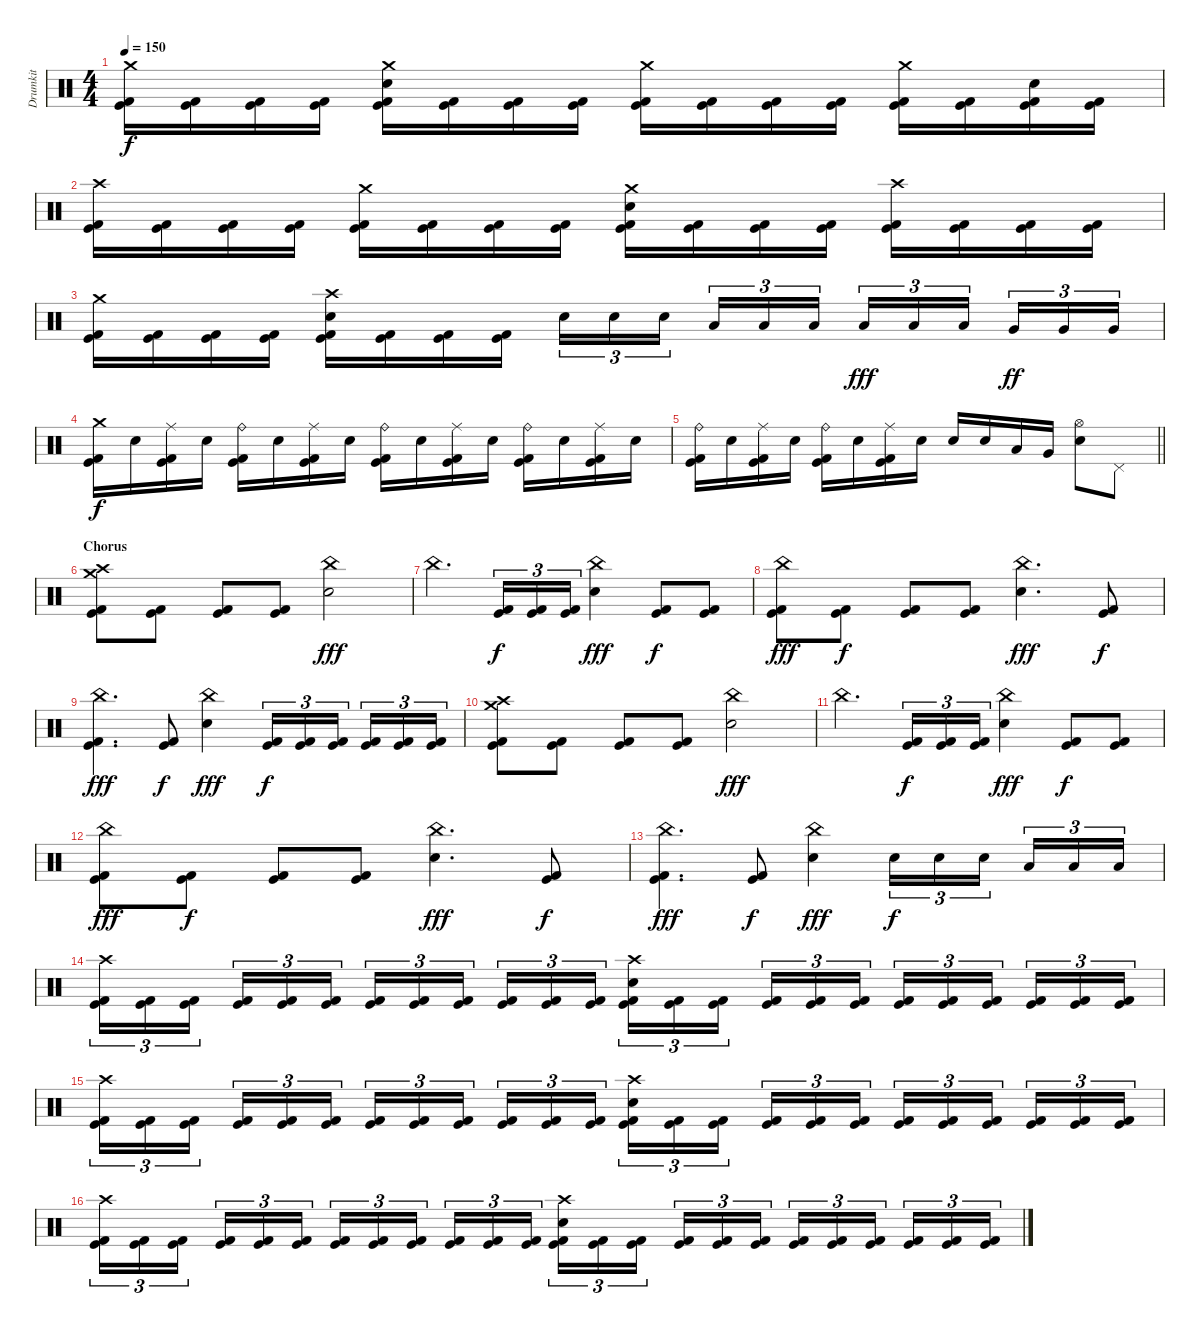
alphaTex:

\track ("Drumkit" "Drumkit") {instrument percussion}
\staff {score}
\articulation defaults
\ts (4 4)
\tempo 150
\clef neutral
\ks c
("Crash medium (hit)" "Kick (hit)" "Kick (hit) 2").16{dy f} ("Kick (hit)" "Kick (hit) 2").16 ("Kick (hit)" "Kick (hit) 2").16 ("Kick (hit)" "Kick (hit) 2").16 ("Crash medium (hit)" "Electric Snare (hit)" "Kick (hit)" "Kick (hit) 2").16 ("Kick (hit)" "Kick (hit) 2").16 ("Kick (hit)" "Kick (hit) 2").16 ("Kick (hit)" "Kick (hit) 2").16 ("Crash medium (hit)" "Kick (hit)" "Kick (hit) 2").16 ("Kick (hit)" "Kick (hit) 2").16 ("Kick (hit)" "Kick (hit) 2").16 ("Kick (hit)" "Kick (hit) 2").16 ("Crash medium (hit)" "Kick (hit)" "Kick (hit) 2").16 ("Kick (hit)" "Kick (hit) 2").16 ("Electric Snare (hit)" "Kick (hit)" "Kick (hit) 2").16 ("Kick (hit)" "Kick (hit) 2").16 |
("Crash high (hit)" "Kick (hit)" "Kick (hit) 2").16 ("Kick (hit)" "Kick (hit) 2").16 ("Kick (hit)" "Kick (hit) 2").16 ("Kick (hit)" "Kick (hit) 2").16 ("Crash medium (hit)" "Kick (hit)" "Kick (hit) 2").16 ("Kick (hit)" "Kick (hit) 2").16 ("Kick (hit)" "Kick (hit) 2").16 ("Kick (hit)" "Kick (hit) 2").16 ("Crash medium (hit)" "Electric Snare (hit)" "Kick (hit)" "Kick (hit) 2").16 ("Kick (hit)" "Kick (hit) 2").16 ("Kick (hit)" "Kick (hit) 2").16 ("Kick (hit)" "Kick (hit) 2").16 ("Crash high (hit)" "Kick (hit)" "Kick (hit) 2").16 ("Kick (hit)" "Kick (hit) 2").16 ("Kick (hit)" "Kick (hit) 2").16 ("Kick (hit)" "Kick (hit) 2").16 |
("Crash medium (hit)" "Kick (hit)" "Kick (hit) 2").16 ("Kick (hit)" "Kick (hit) 2").16 ("Kick (hit)" "Kick (hit) 2").16 ("Kick (hit)" "Kick (hit) 2").16 ("Crash high (hit)" "Electric Snare (hit)" "Kick (hit)" "Kick (hit) 2").16 ("Kick (hit)" "Kick (hit) 2").16 ("Kick (hit)" "Kick (hit) 2").16 ("Kick (hit)" "Kick (hit) 2").16 "Electric Snare (hit)".16{tu (3 2)} "Electric Snare (hit)".16{tu (3 2)} "Electric Snare (hit)".16{tu (3 2) beam splitsecondary} "Low Tom (hit)".16{tu (3 2)} "Low Tom (hit)".16{tu (3 2)} "Low Tom (hit)".16{tu (3 2)} "Low Floor Tom (hit)".16{tu (3 2) dy fff} "Low Floor Tom (hit)".16{tu (3 2)} "Low Floor Tom (hit)".16{tu (3 2) beam splitsecondary} "Very Low Tom (hit)".16{tu (3 2) dy ff} "Very Low Tom (hit)".16{tu (3 2)} "Very Low Tom (hit)".16{tu (3 2)} |
("Crash medium (hit)" "Kick (hit)" "Kick (hit) 2").16{dy f} "Electric Snare (hit)".16 ("Ride (middle)" "Kick (hit)" "Kick (hit) 2").16 "Electric Snare (hit)".16 ("Ride (bell)" "Kick (hit)" "Kick (hit) 2").16 "Electric Snare (hit)".16 ("Ride (middle)" "Kick (hit)" "Kick (hit) 2").16 "Electric Snare (hit)".16 ("Ride (bell)" "Kick (hit)" "Kick (hit) 2").16 "Electric Snare (hit)".16 ("Ride (middle)" "Kick (hit)" "Kick (hit) 2").16 "Electric Snare (hit)".16 ("Ride (bell)" "Kick (hit)" "Kick (hit) 2").16 "Electric Snare (hit)".16 ("Ride (middle)" "Kick (hit)" "Kick (hit) 2").16 "Electric Snare (hit)".16 |
\barLineRight lightlight
("Ride (bell)" "Kick (hit)" "Kick (hit) 2").16 "Electric Snare (hit)".16 ("Ride (middle)" "Kick (hit)" "Kick (hit) 2").16 "Electric Snare (hit)".16 ("Ride (bell)" "Kick (hit)" "Kick (hit) 2").16 "Electric Snare (hit)".16 ("Ride (middle)" "Kick (hit)" "Kick (hit) 2").16 "Electric Snare (hit)".16 "Electric Snare (hit)".16 "Electric Snare (hit)".16 "Low Tom (hit)".16 "Very Low Tom (hit)".16 ("Hi-Hat (open)" "Electric Snare (hit)").8 "Pedal Hi-Hat (hit)".8 |
\section ("" "Chorus")
("Crash high (hit)" "Crash medium (hit)" "Kick (hit)" "Kick (hit) 2").8 ("Kick (hit)" "Kick (hit) 2").8 ("Kick (hit)" "Kick (hit) 2").8 ("Kick (hit)" "Kick (hit) 2").8 ("China (hit)" "Electric Snare (hit)").2{dy fff} |
"China (hit)".4{d} ("Kick (hit)" "Kick (hit) 2").16{tu (3 2) dy f} ("Kick (hit)" "Kick (hit) 2").16{tu (3 2)} ("Kick (hit)" "Kick (hit) 2").16{tu (3 2)} ("China (hit)" "Electric Snare (hit)").4{dy fff} ("Kick (hit)" "Kick (hit) 2").8{dy f} ("Kick (hit)" "Kick (hit) 2").8 |
("China (hit)" "Kick (hit)" "Kick (hit) 2").8{dy fff} ("Kick (hit)" "Kick (hit) 2").8{dy f} ("Kick (hit)" "Kick (hit) 2").8 ("Kick (hit)" "Kick (hit) 2").8 ("China (hit)" "Electric Snare (hit)").4{d dy fff} ("Kick (hit)" "Kick (hit) 2").8{dy f} |
("China (hit)" "Kick (hit)" "Kick (hit) 2").4{d dy fff} ("Kick (hit)" "Kick (hit) 2").8{dy f} ("China (hit)" "Electric Snare (hit)").4{dy fff} ("Kick (hit)" "Kick (hit) 2").16{tu (3 2) dy f} ("Kick (hit)" "Kick (hit) 2").16{tu (3 2)} ("Kick (hit)" "Kick (hit) 2").16{tu (3 2) beam splitsecondary} ("Kick (hit)" "Kick (hit) 2").16{tu (3 2)} ("Kick (hit)" "Kick (hit) 2").16{tu (3 2)} ("Kick (hit)" "Kick (hit) 2").16{tu (3 2)} |
("Crash high (hit)" "Crash medium (hit)" "Kick (hit)" "Kick (hit) 2").8 ("Kick (hit)" "Kick (hit) 2").8 ("Kick (hit)" "Kick (hit) 2").8 ("Kick (hit)" "Kick (hit) 2").8 ("China (hit)" "Electric Snare (hit)").2{dy fff} |
"China (hit)".4{d} ("Kick (hit)" "Kick (hit) 2").16{tu (3 2) dy f} ("Kick (hit)" "Kick (hit) 2").16{tu (3 2)} ("Kick (hit)" "Kick (hit) 2").16{tu (3 2)} ("China (hit)" "Electric Snare (hit)").4{dy fff} ("Kick (hit)" "Kick (hit) 2").8{dy f} ("Kick (hit)" "Kick (hit) 2").8 |
("China (hit)" "Kick (hit)" "Kick (hit) 2").8{dy fff} ("Kick (hit)" "Kick (hit) 2").8{dy f} ("Kick (hit)" "Kick (hit) 2").8 ("Kick (hit)" "Kick (hit) 2").8 ("China (hit)" "Electric Snare (hit)").4{d dy fff} ("Kick (hit)" "Kick (hit) 2").8{dy f} |
("China (hit)" "Kick (hit)" "Kick (hit) 2").4{d dy fff} ("Kick (hit)" "Kick (hit) 2").8{dy f} ("China (hit)" "Electric Snare (hit)").4{dy fff} "Electric Snare (hit)".16{tu (3 2) dy f} "Electric Snare (hit)".16{tu (3 2)} "Electric Snare (hit)".16{tu (3 2) beam splitsecondary} "Low Tom (hit)".16{tu (3 2)} "Low Tom (hit)".16{tu (3 2)} "Low Tom (hit)".16{tu (3 2)} |
("Crash high (hit)" "Kick (hit)" "Kick (hit) 2").16{tu (3 2)} ("Kick (hit)" "Kick (hit) 2").16{tu (3 2)} ("Kick (hit)" "Kick (hit) 2").16{tu (3 2) beam splitsecondary} ("Kick (hit)" "Kick (hit) 2").16{tu (3 2)} ("Kick (hit)" "Kick (hit) 2").16{tu (3 2)} ("Kick (hit)" "Kick (hit) 2").16{tu (3 2)} ("Kick (hit)" "Kick (hit) 2").16{tu (3 2)} ("Kick (hit)" "Kick (hit) 2").16{tu (3 2)} ("Kick (hit)" "Kick (hit) 2").16{tu (3 2) beam splitsecondary} ("Kick (hit)" "Kick (hit) 2").16{tu (3 2)} ("Kick (hit)" "Kick (hit) 2").16{tu (3 2)} ("Kick (hit)" "Kick (hit) 2").16{tu (3 2)} ("Crash high (hit)" "Electric Snare (hit)" "Kick (hit)" "Kick (hit) 2").16{tu (3 2)} ("Kick (hit)" "Kick (hit) 2").16{tu (3 2)} ("Kick (hit)" "Kick (hit) 2").16{tu (3 2) beam splitsecondary} ("Kick (hit)" "Kick (hit) 2").16{tu (3 2)} ("Kick (hit)" "Kick (hit) 2").16{tu (3 2)} ("Kick (hit)" "Kick (hit) 2").16{tu (3 2)} ("Kick (hit)" "Kick (hit) 2").16{tu (3 2)} ("Kick (hit)" "Kick (hit) 2").16{tu (3 2)} ("Kick (hit)" "Kick (hit) 2").16{tu (3 2) beam splitsecondary} ("Kick (hit)" "Kick (hit) 2").16{tu (3 2)} ("Kick (hit)" "Kick (hit) 2").16{tu (3 2)} ("Kick (hit)" "Kick (hit) 2").16{tu (3 2)} |
("Crash high (hit)" "Kick (hit)" "Kick (hit) 2").16{tu (3 2)} ("Kick (hit)" "Kick (hit) 2").16{tu (3 2)} ("Kick (hit)" "Kick (hit) 2").16{tu (3 2) beam splitsecondary} ("Kick (hit)" "Kick (hit) 2").16{tu (3 2)} ("Kick (hit)" "Kick (hit) 2").16{tu (3 2)} ("Kick (hit)" "Kick (hit) 2").16{tu (3 2)} ("Kick (hit)" "Kick (hit) 2").16{tu (3 2)} ("Kick (hit)" "Kick (hit) 2").16{tu (3 2)} ("Kick (hit)" "Kick (hit) 2").16{tu (3 2) beam splitsecondary} ("Kick (hit)" "Kick (hit) 2").16{tu (3 2)} ("Kick (hit)" "Kick (hit) 2").16{tu (3 2)} ("Kick (hit)" "Kick (hit) 2").16{tu (3 2)} ("Crash high (hit)" "Electric Snare (hit)" "Kick (hit)" "Kick (hit) 2").16{tu (3 2)} ("Kick (hit)" "Kick (hit) 2").16{tu (3 2)} ("Kick (hit)" "Kick (hit) 2").16{tu (3 2) beam splitsecondary} ("Kick (hit)" "Kick (hit) 2").16{tu (3 2)} ("Kick (hit)" "Kick (hit) 2").16{tu (3 2)} ("Kick (hit)" "Kick (hit) 2").16{tu (3 2)} ("Kick (hit)" "Kick (hit) 2").16{tu (3 2)} ("Kick (hit)" "Kick (hit) 2").16{tu (3 2)} ("Kick (hit)" "Kick (hit) 2").16{tu (3 2) beam splitsecondary} ("Kick (hit)" "Kick (hit) 2").16{tu (3 2)} ("Kick (hit)" "Kick (hit) 2").16{tu (3 2)} ("Kick (hit)" "Kick (hit) 2").16{tu (3 2)} |
("Crash high (hit)" "Kick (hit)" "Kick (hit) 2").16{tu (3 2)} ("Kick (hit)" "Kick (hit) 2").16{tu (3 2)} ("Kick (hit)" "Kick (hit) 2").16{tu (3 2) beam splitsecondary} ("Kick (hit)" "Kick (hit) 2").16{tu (3 2)} ("Kick (hit)" "Kick (hit) 2").16{tu (3 2)} ("Kick (hit)" "Kick (hit) 2").16{tu (3 2)} ("Kick (hit)" "Kick (hit) 2").16{tu (3 2)} ("Kick (hit)" "Kick (hit) 2").16{tu (3 2)} ("Kick (hit)" "Kick (hit) 2").16{tu (3 2) beam splitsecondary} ("Kick (hit)" "Kick (hit) 2").16{tu (3 2)} ("Kick (hit)" "Kick (hit) 2").16{tu (3 2)} ("Kick (hit)" "Kick (hit) 2").16{tu (3 2)} ("Crash high (hit)" "Electric Snare (hit)" "Kick (hit)" "Kick (hit) 2").16{tu (3 2)} ("Kick (hit)" "Kick (hit) 2").16{tu (3 2)} ("Kick (hit)" "Kick (hit) 2").16{tu (3 2) beam splitsecondary} ("Kick (hit)" "Kick (hit) 2").16{tu (3 2)} ("Kick (hit)" "Kick (hit) 2").16{tu (3 2)} ("Kick (hit)" "Kick (hit) 2").16{tu (3 2)} ("Kick (hit)" "Kick (hit) 2").16{tu (3 2)} ("Kick (hit)" "Kick (hit) 2").16{tu (3 2)} ("Kick (hit)" "Kick (hit) 2").16{tu (3 2) beam splitsecondary} ("Kick (hit)" "Kick (hit) 2").16{tu (3 2)} ("Kick (hit)" "Kick (hit) 2").16{tu (3 2)} ("Kick (hit)" "Kick (hit) 2").16{tu (3 2)}
